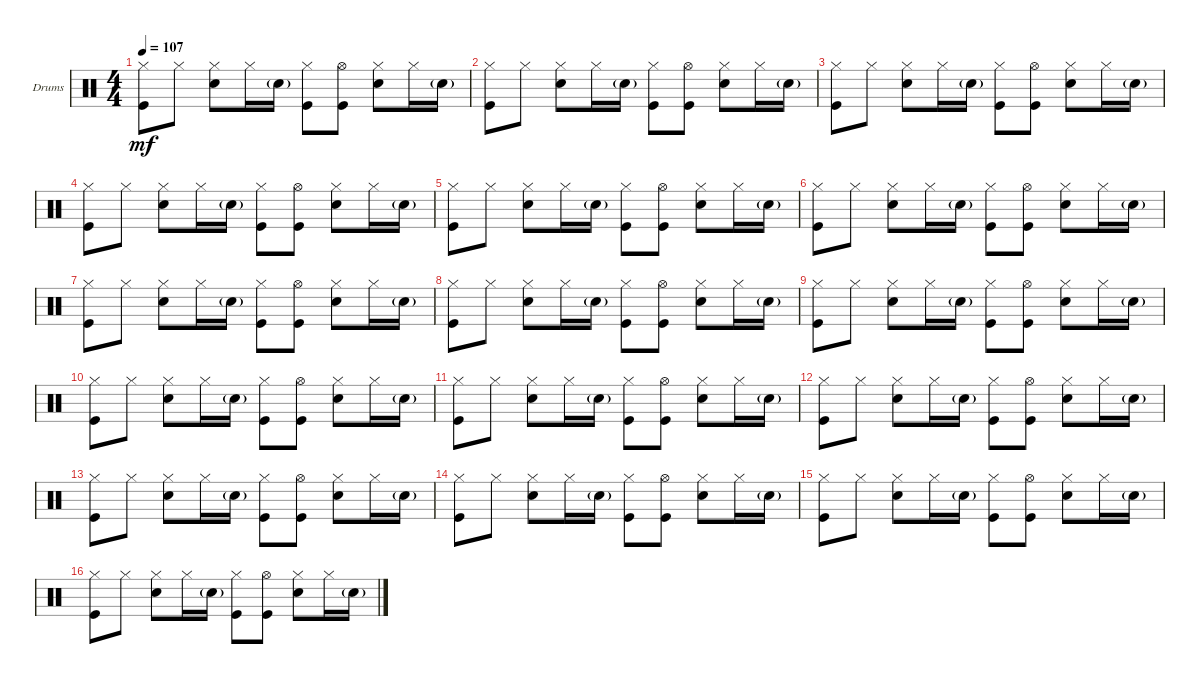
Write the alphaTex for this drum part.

\defaultSystemsLayout 4
\bracketExtendMode groupsimilarinstruments
\firstSystemTrackNameOrientation horizontal
\otherSystemsTrackNameOrientation horizontal
\track ("Drumkit" "Drums") {instrument percussion}
\staff {score}
\articulation defaults
\ts (4 4)
\tempo 107
\clef neutral
\ks c
("Kick (hit)" "Hi-Hat (closed)").8{dy mf} "Hi-Hat (closed)".8 ("Hi-Hat (closed)" "Snare (hit) 2").8 "Hi-Hat (closed)".16 "Snare (hit) 2"{g}.16 ("Hi-Hat (closed)" "Kick (hit)").8 ("Hi-Hat (open)" "Kick (hit)").8 ("Hi-Hat (closed)" "Snare (hit) 2").8 "Hi-Hat (closed)".16 "Snare (hit) 2"{g}.16 |
("Kick (hit)" "Hi-Hat (closed)").8 "Hi-Hat (closed)".8 ("Hi-Hat (closed)" "Snare (hit) 2").8 "Hi-Hat (closed)".16 "Snare (hit) 2"{g}.16 ("Hi-Hat (closed)" "Kick (hit)").8 ("Hi-Hat (open)" "Kick (hit)").8 ("Hi-Hat (closed)" "Snare (hit) 2").8 "Hi-Hat (closed)".16 "Snare (hit) 2"{g}.16 |
("Kick (hit)" "Hi-Hat (closed)").8 "Hi-Hat (closed)".8 ("Hi-Hat (closed)" "Snare (hit) 2").8 "Hi-Hat (closed)".16 "Snare (hit) 2"{g}.16 ("Hi-Hat (closed)" "Kick (hit)").8 ("Hi-Hat (open)" "Kick (hit)").8 ("Hi-Hat (closed)" "Snare (hit) 2").8 "Hi-Hat (closed)".16 "Snare (hit) 2"{g}.16 |
("Kick (hit)" "Hi-Hat (closed)").8 "Hi-Hat (closed)".8 ("Hi-Hat (closed)" "Snare (hit) 2").8 "Hi-Hat (closed)".16 "Snare (hit) 2"{g}.16 ("Hi-Hat (closed)" "Kick (hit)").8 ("Hi-Hat (open)" "Kick (hit)").8 ("Hi-Hat (closed)" "Snare (hit) 2").8 "Hi-Hat (closed)".16 "Snare (hit) 2"{g}.16 |
("Kick (hit)" "Hi-Hat (closed)").8 "Hi-Hat (closed)".8 ("Hi-Hat (closed)" "Snare (hit) 2").8 "Hi-Hat (closed)".16 "Snare (hit) 2"{g}.16 ("Hi-Hat (closed)" "Kick (hit)").8 ("Hi-Hat (open)" "Kick (hit)").8 ("Hi-Hat (closed)" "Snare (hit) 2").8 "Hi-Hat (closed)".16 "Snare (hit) 2"{g}.16 |
("Kick (hit)" "Hi-Hat (closed)").8 "Hi-Hat (closed)".8 ("Hi-Hat (closed)" "Snare (hit) 2").8 "Hi-Hat (closed)".16 "Snare (hit) 2"{g}.16 ("Hi-Hat (closed)" "Kick (hit)").8 ("Hi-Hat (open)" "Kick (hit)").8 ("Hi-Hat (closed)" "Snare (hit) 2").8 "Hi-Hat (closed)".16 "Snare (hit) 2"{g}.16 |
("Kick (hit)" "Hi-Hat (closed)").8 "Hi-Hat (closed)".8 ("Hi-Hat (closed)" "Snare (hit) 2").8 "Hi-Hat (closed)".16 "Snare (hit) 2"{g}.16 ("Hi-Hat (closed)" "Kick (hit)").8 ("Hi-Hat (open)" "Kick (hit)").8 ("Hi-Hat (closed)" "Snare (hit) 2").8 "Hi-Hat (closed)".16 "Snare (hit) 2"{g}.16 |
("Kick (hit)" "Hi-Hat (closed)").8 "Hi-Hat (closed)".8 ("Hi-Hat (closed)" "Snare (hit) 2").8 "Hi-Hat (closed)".16 "Snare (hit) 2"{g}.16 ("Hi-Hat (closed)" "Kick (hit)").8 ("Hi-Hat (open)" "Kick (hit)").8 ("Hi-Hat (closed)" "Snare (hit) 2").8 "Hi-Hat (closed)".16 "Snare (hit) 2"{g}.16 |
("Kick (hit)" "Hi-Hat (closed)").8 "Hi-Hat (closed)".8 ("Hi-Hat (closed)" "Snare (hit) 2").8 "Hi-Hat (closed)".16 "Snare (hit) 2"{g}.16 ("Hi-Hat (closed)" "Kick (hit)").8 ("Hi-Hat (open)" "Kick (hit)").8 ("Hi-Hat (closed)" "Snare (hit) 2").8 "Hi-Hat (closed)".16 "Snare (hit) 2"{g}.16 |
("Kick (hit)" "Hi-Hat (closed)").8 "Hi-Hat (closed)".8 ("Hi-Hat (closed)" "Snare (hit) 2").8 "Hi-Hat (closed)".16 "Snare (hit) 2"{g}.16 ("Hi-Hat (closed)" "Kick (hit)").8 ("Hi-Hat (open)" "Kick (hit)").8 ("Hi-Hat (closed)" "Snare (hit) 2").8 "Hi-Hat (closed)".16 "Snare (hit) 2"{g}.16 |
("Kick (hit)" "Hi-Hat (closed)").8 "Hi-Hat (closed)".8 ("Hi-Hat (closed)" "Snare (hit) 2").8 "Hi-Hat (closed)".16 "Snare (hit) 2"{g}.16 ("Hi-Hat (closed)" "Kick (hit)").8 ("Hi-Hat (open)" "Kick (hit)").8 ("Hi-Hat (closed)" "Snare (hit) 2").8 "Hi-Hat (closed)".16 "Snare (hit) 2"{g}.16 |
("Kick (hit)" "Hi-Hat (closed)").8 "Hi-Hat (closed)".8 ("Hi-Hat (closed)" "Snare (hit) 2").8 "Hi-Hat (closed)".16 "Snare (hit) 2"{g}.16 ("Hi-Hat (closed)" "Kick (hit)").8 ("Hi-Hat (open)" "Kick (hit)").8 ("Hi-Hat (closed)" "Snare (hit) 2").8 "Hi-Hat (closed)".16 "Snare (hit) 2"{g}.16 |
("Kick (hit)" "Hi-Hat (closed)").8 "Hi-Hat (closed)".8 ("Hi-Hat (closed)" "Snare (hit) 2").8 "Hi-Hat (closed)".16 "Snare (hit) 2"{g}.16 ("Hi-Hat (closed)" "Kick (hit)").8 ("Hi-Hat (open)" "Kick (hit)").8 ("Hi-Hat (closed)" "Snare (hit) 2").8 "Hi-Hat (closed)".16 "Snare (hit) 2"{g}.16 |
("Kick (hit)" "Hi-Hat (closed)").8 "Hi-Hat (closed)".8 ("Hi-Hat (closed)" "Snare (hit) 2").8 "Hi-Hat (closed)".16 "Snare (hit) 2"{g}.16 ("Hi-Hat (closed)" "Kick (hit)").8 ("Hi-Hat (open)" "Kick (hit)").8 ("Hi-Hat (closed)" "Snare (hit) 2").8 "Hi-Hat (closed)".16 "Snare (hit) 2"{g}.16 |
("Kick (hit)" "Hi-Hat (closed)").8 "Hi-Hat (closed)".8 ("Hi-Hat (closed)" "Snare (hit) 2").8 "Hi-Hat (closed)".16 "Snare (hit) 2"{g}.16 ("Hi-Hat (closed)" "Kick (hit)").8 ("Hi-Hat (open)" "Kick (hit)").8 ("Hi-Hat (closed)" "Snare (hit) 2").8 "Hi-Hat (closed)".16 "Snare (hit) 2"{g}.16 |
("Kick (hit)" "Hi-Hat (closed)").8 "Hi-Hat (closed)".8 ("Hi-Hat (closed)" "Snare (hit) 2").8 "Hi-Hat (closed)".16 "Snare (hit) 2"{g}.16 ("Hi-Hat (closed)" "Kick (hit)").8 ("Hi-Hat (open)" "Kick (hit)").8 ("Hi-Hat (closed)" "Snare (hit) 2").8 "Hi-Hat (closed)".16 "Snare (hit) 2"{g}.16
